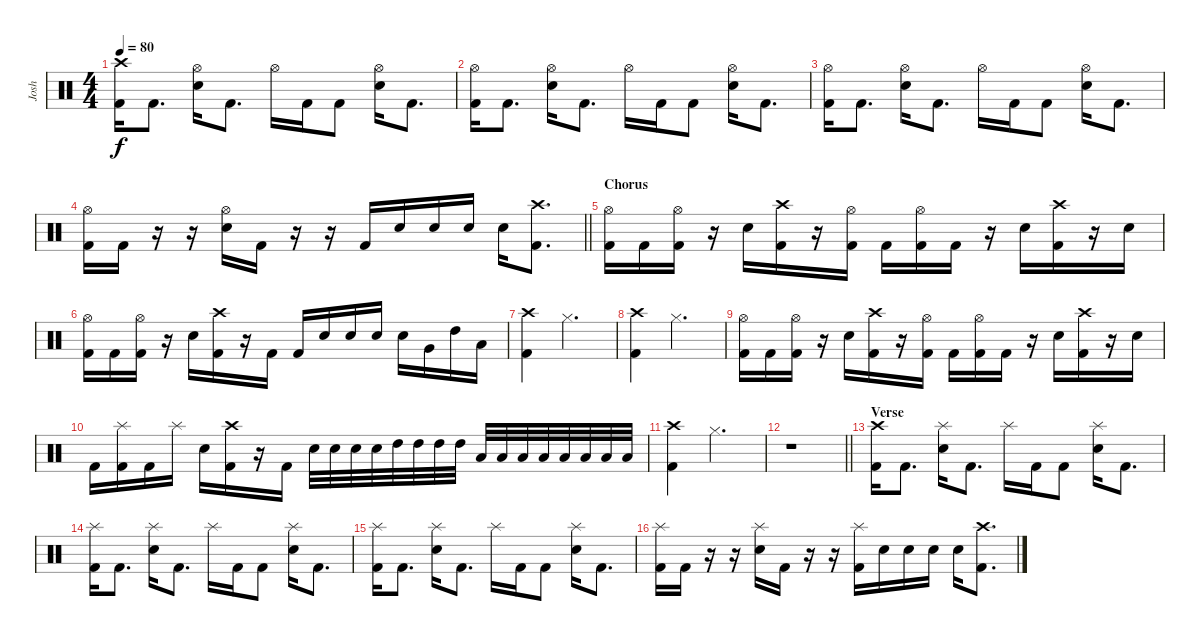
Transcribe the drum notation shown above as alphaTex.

\track ("Josh" "Josh") {instrument percussion}
\staff {score}
\articulation defaults
\ts (4 4)
\tempo 80
\clef neutral
\ks c
("Crash high (hit)" "Kick (hit) 2").16{dy f} "Kick (hit) 2".8{d} ("Hi-Hat (open)" "Electric Snare (hit)").16 "Kick (hit) 2".8{d} "Hi-Hat (open)".16 "Kick (hit) 2".16 "Kick (hit) 2".8 ("Hi-Hat (open)" "Electric Snare (hit)").16 "Kick (hit) 2".8{d} |
("Hi-Hat (open)" "Kick (hit) 2").16 "Kick (hit) 2".8{d} ("Hi-Hat (open)" "Electric Snare (hit)").16 "Kick (hit) 2".8{d} "Hi-Hat (open)".16 "Kick (hit) 2".16 "Kick (hit) 2".8 ("Hi-Hat (open)" "Electric Snare (hit)").16 "Kick (hit) 2".8{d} |
("Hi-Hat (open)" "Kick (hit) 2").16 "Kick (hit) 2".8{d} ("Hi-Hat (open)" "Electric Snare (hit)").16 "Kick (hit) 2".8{d} "Hi-Hat (open)".16 "Kick (hit) 2".16 "Kick (hit) 2".8 ("Hi-Hat (open)" "Electric Snare (hit)").16 "Kick (hit) 2".8{d} |
\barLineRight lightlight
("Hi-Hat (open)" "Kick (hit) 2").16 "Kick (hit) 2".16 r.16 r.16 ("Hi-Hat (open)" "Electric Snare (hit)").16 "Kick (hit) 2".16 r.16 r.16 "Kick (hit) 2".16 "Electric Snare (hit)".16 "Electric Snare (hit)".16 "Electric Snare (hit)".16 "Electric Snare (hit)".16 ("Crash high (hit)" "Kick (hit) 2").8{d} |
\section ("" "Chorus")
("Hi-Hat (open)" "Kick (hit) 2").16 "Kick (hit) 2".16 ("Hi-Hat (open)" "Kick (hit) 2").16 r.16 "Electric Snare (hit)".16 ("Crash high (hit)" "Kick (hit) 2").16 r.16 ("Hi-Hat (open)" "Kick (hit) 2").16 "Kick (hit) 2".16 ("Hi-Hat (open)" "Kick (hit) 2").16 "Kick (hit) 2".16 r.16 "Electric Snare (hit)".16 ("Crash high (hit)" "Kick (hit) 2").16 r.16 "Electric Snare (hit)".16 |
("Hi-Hat (open)" "Kick (hit) 2").16 "Kick (hit) 2".16 ("Hi-Hat (open)" "Kick (hit) 2").16 r.16 "Electric Snare (hit)".16 ("Crash high (hit)" "Kick (hit) 2").16 r.16 "Kick (hit) 2".16 "Kick (hit) 2".16 "Electric Snare (hit)".16 "Electric Snare (hit)".16 "Electric Snare (hit)".16 "Electric Snare (hit)".16 "Very Low Tom (hit)".16 "High Tom (hit)".16 "Low Floor Tom (hit)".16 |
("Crash high (hit)" "Kick (hit) 2").4 "Hi-Hat (closed)".2{d} |
("Crash high (hit)" "Kick (hit) 2").4 "Hi-Hat (closed)".2{d} |
("Hi-Hat (open)" "Kick (hit) 2").16 "Kick (hit) 2".16 ("Hi-Hat (open)" "Kick (hit) 2").16 r.16 "Electric Snare (hit)".16 ("Crash high (hit)" "Kick (hit) 2").16 r.16 ("Hi-Hat (open)" "Kick (hit) 2").16 "Kick (hit) 2".16 ("Hi-Hat (open)" "Kick (hit) 2").16 "Kick (hit) 2".16 r.16 "Electric Snare (hit)".16 ("Crash high (hit)" "Kick (hit) 2").16 r.16 "Electric Snare (hit)".16 |
"Kick (hit) 2".16 ("Splash (hit)" "Kick (hit) 2").16 "Kick (hit) 2".16 "Splash (hit)".16 "Electric Snare (hit)".16 ("Crash high (hit)" "Kick (hit) 2").16 r.16 "Kick (hit) 2".16 "Electric Snare (hit)".32 "Electric Snare (hit)".32 "Electric Snare (hit)".32 "Electric Snare (hit)".32 "High Tom (hit)".32 "High Tom (hit)".32 "High Tom (hit)".32 "High Tom (hit)".32 "Low Floor Tom (hit)".32 "Low Floor Tom (hit)".32 "Low Floor Tom (hit)".32 "Low Floor Tom (hit)".32 "Low Floor Tom (hit)".32 "Low Floor Tom (hit)".32 "Low Floor Tom (hit)".32 "Low Floor Tom (hit)".32 |
("Crash high (hit)" "Kick (hit) 2").4 "Hi-Hat (closed)".2{d} |
\barLineRight lightlight
r.1 |
\section ("" "Verse")
("Crash high (hit)" "Kick (hit) 2").16 "Kick (hit) 2".8{d} ("Splash (hit)" "Electric Snare (hit)").16 "Kick (hit) 2".8{d} "Splash (hit)".16 "Kick (hit) 2".16 "Kick (hit) 2".8 ("Splash (hit)" "Electric Snare (hit)").16 "Kick (hit) 2".8{d} |
("Splash (hit)" "Kick (hit) 2").16 "Kick (hit) 2".8{d} ("Splash (hit)" "Electric Snare (hit)").16 "Kick (hit) 2".8{d} "Splash (hit)".16 "Kick (hit) 2".16 "Kick (hit) 2".8 ("Splash (hit)" "Electric Snare (hit)").16 "Kick (hit) 2".8{d} |
("Splash (hit)" "Kick (hit) 2").16 "Kick (hit) 2".8{d} ("Splash (hit)" "Electric Snare (hit)").16 "Kick (hit) 2".8{d} "Splash (hit)".16 "Kick (hit) 2".16 "Kick (hit) 2".8 ("Splash (hit)" "Electric Snare (hit)").16 "Kick (hit) 2".8{d} |
("Splash (hit)" "Kick (hit) 2").16 "Kick (hit) 2".16 r.16 r.16 ("Splash (hit)" "Electric Snare (hit)").16 "Kick (hit) 2".16 r.16 r.16 ("Splash (hit)" "Kick (hit) 2").16 "Electric Snare (hit)".16 "Electric Snare (hit)".16 "Electric Snare (hit)".16 "Electric Snare (hit)".16 ("Crash high (hit)" "Kick (hit) 2").8{d}
